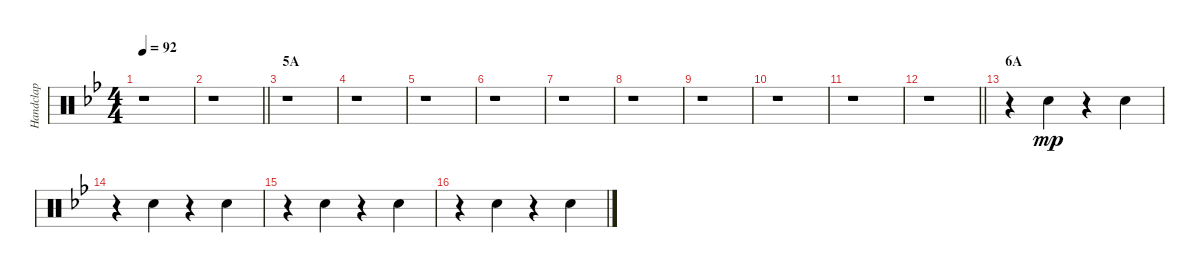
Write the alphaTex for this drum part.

\track ("Handclap" "Handclap") {instrument percussion}
\staff {score}
\articulation defaults
\ts (4 4)
\tempo 92
\clef neutral
\ks bb
r.1{dy mp} |
\barLineRight lightlight
r.1 |
\section ("" "5A")
r.1 |
r.1 |
r.1 |
r.1 |
r.1 |
r.1 |
r.1 |
r.1 |
r.1 |
\barLineRight lightlight
r.1 |
\section ("" "6A")
r.4 "Hand Clap (hit)".4 r.4 "Hand Clap (hit)".4 |
r.4 "Hand Clap (hit)".4 r.4 "Hand Clap (hit)".4 |
r.4 "Hand Clap (hit)".4 r.4 "Hand Clap (hit)".4 |
r.4 "Hand Clap (hit)".4 r.4 "Hand Clap (hit)".4
